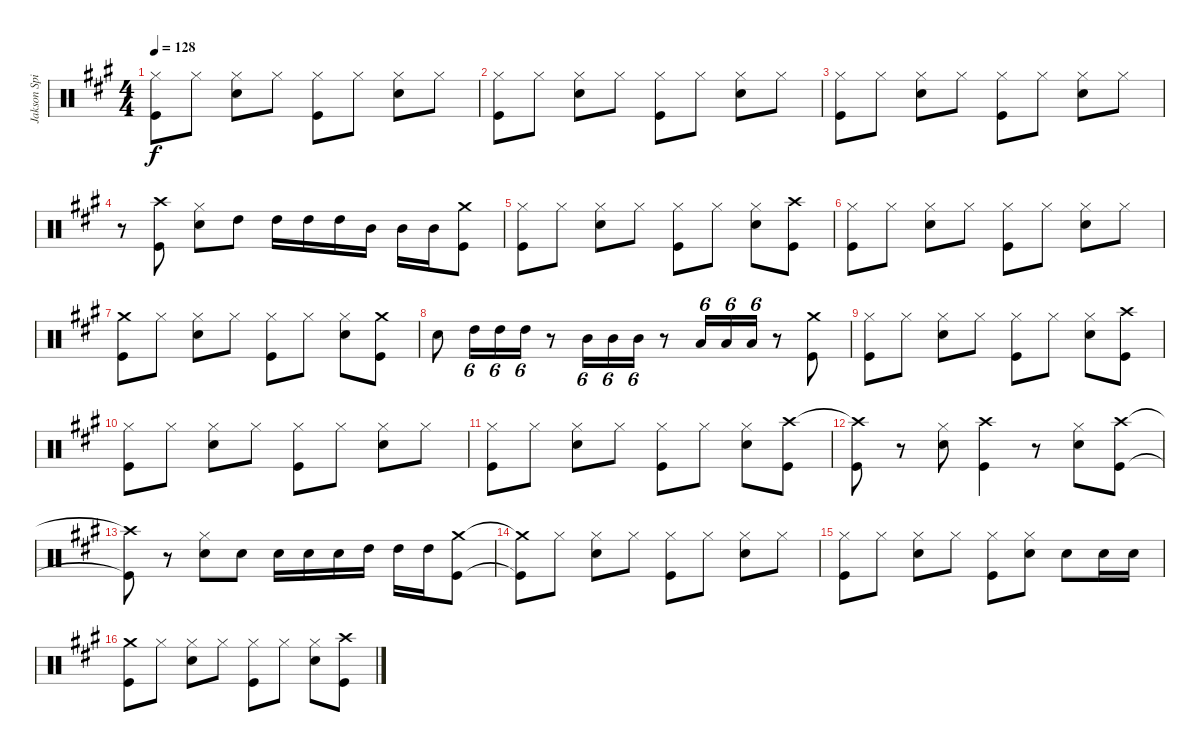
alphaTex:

\track ("Jakson Spires Drums" "Jakson Spi") {instrument percussion}
\staff {score}
\articulation defaults
\ts (4 4)
\tempo 128
\clef neutral
\ks a
("Hi-Hat (closed)" "Kick (hit)").8{dy f} "Hi-Hat (closed)".8 ("Hi-Hat (closed)" "Snare (hit) 2").8 "Hi-Hat (closed)".8 ("Hi-Hat (closed)" "Kick (hit)").8 "Hi-Hat (closed)".8 ("Hi-Hat (closed)" "Snare (hit) 2").8 "Hi-Hat (closed)".8 |
("Hi-Hat (closed)" "Kick (hit)").8 "Hi-Hat (closed)".8 ("Hi-Hat (closed)" "Snare (hit) 2").8 "Hi-Hat (closed)".8 ("Hi-Hat (closed)" "Kick (hit)").8 "Hi-Hat (closed)".8 ("Hi-Hat (closed)" "Snare (hit) 2").8 "Hi-Hat (closed)".8 |
("Hi-Hat (closed)" "Kick (hit)").8 "Hi-Hat (closed)".8 ("Hi-Hat (closed)" "Snare (hit) 2").8 "Hi-Hat (closed)".8 ("Hi-Hat (closed)" "Kick (hit)").8 "Hi-Hat (closed)".8 ("Hi-Hat (closed)" "Snare (hit) 2").8 "Hi-Hat (closed)".8 |
r.8 ("Crash high (hit)" "Kick (hit)").8 ("Hi-Hat (closed)" "Snare (hit) 2").8 "High Tom (hit)".8 "High Tom (hit)".16 "High Tom (hit)".16 "High Tom (hit)".16 "Mid Tom (hit)".16 "Mid Tom (hit)".16 "Mid Tom (hit)".16 ("Crash medium (hit)" "Kick (hit)").8 |
("Hi-Hat (closed)" "Kick (hit)").8 "Hi-Hat (closed)".8 ("Hi-Hat (closed)" "Snare (hit) 2").8 "Hi-Hat (closed)".8 ("Hi-Hat (closed)" "Kick (hit)").8 "Hi-Hat (closed)".8 ("Hi-Hat (closed)" "Snare (hit) 2").8 ("Crash high (hit)" "Kick (hit)").8 |
("Hi-Hat (closed)" "Kick (hit)").8 "Hi-Hat (closed)".8 ("Hi-Hat (closed)" "Snare (hit) 2").8 "Hi-Hat (closed)".8 ("Hi-Hat (closed)" "Kick (hit)").8 "Hi-Hat (closed)".8 ("Hi-Hat (closed)" "Snare (hit) 2").8 "Hi-Hat (closed)".8 |
("Crash medium (hit)" "Kick (hit)").8 "Hi-Hat (closed)".8 ("Hi-Hat (closed)" "Snare (hit) 2").8 "Hi-Hat (closed)".8 ("Hi-Hat (closed)" "Kick (hit)").8 "Hi-Hat (closed)".8 ("Hi-Hat (closed)" "Snare (hit) 2").8 ("Crash medium (hit)" "Kick (hit)").8 |
"Snare (hit) 2".8 "High Tom (hit)".16{tu (6 4)} "High Tom (hit)".16{tu (6 4)} "High Tom (hit)".16{tu (6 4)} r.8 "Mid Tom (hit)".16{tu (6 4)} "Mid Tom (hit)".16{tu (6 4)} "Mid Tom (hit)".16{tu (6 4)} r.8 "Low Tom (hit)".16{tu (6 4)} "Low Tom (hit)".16{tu (6 4)} "Low Tom (hit)".16{tu (6 4)} r.8 ("Crash medium (hit)" "Kick (hit)").8 |
("Hi-Hat (closed)" "Kick (hit)").8 "Hi-Hat (closed)".8 ("Hi-Hat (closed)" "Snare (hit) 2").8 "Hi-Hat (closed)".8 ("Hi-Hat (closed)" "Kick (hit)").8 "Hi-Hat (closed)".8 ("Hi-Hat (closed)" "Snare (hit) 2").8 ("Crash high (hit)" "Kick (hit)").8 |
("Hi-Hat (closed)" "Kick (hit)").8 "Hi-Hat (closed)".8 ("Hi-Hat (closed)" "Snare (hit) 2").8 "Hi-Hat (closed)".8 ("Hi-Hat (closed)" "Kick (hit)").8 "Hi-Hat (closed)".8 ("Hi-Hat (closed)" "Snare (hit) 2").8 "Hi-Hat (closed)".8 |
("Hi-Hat (closed)" "Kick (hit)").8 "Hi-Hat (closed)".8 ("Hi-Hat (closed)" "Snare (hit) 2").8 "Hi-Hat (closed)".8 ("Hi-Hat (closed)" "Kick (hit)").8 "Hi-Hat (closed)".8 ("Hi-Hat (closed)" "Snare (hit) 2").8 ("Crash high (hit)" "Kick (hit)").8 |
("Crash high (hit)"{t} "Kick (hit)").8 r.8 ("Hi-Hat (closed)" "Snare (hit) 2").8 ("Crash high (hit)" "Kick (hit)").4 r.8 ("Hi-Hat (closed)" "Snare (hit) 2").8 ("Crash high (hit)" "Kick (hit)").8 |
("Crash high (hit)"{t} "Kick (hit)"{t}).8 r.8 ("Hi-Hat (closed)" "Snare (hit) 2").8 "Snare (hit) 2".8 "Snare (hit) 2".16 "Snare (hit) 2".16 "Snare (hit) 2".16 "High Tom (hit)".16 "High Tom (hit)".16 "High Tom (hit)".16 ("Crash medium (hit)" "Kick (hit)").8 |
("Crash medium (hit)"{t} "Kick (hit)"{t}).8 "Hi-Hat (closed)".8 ("Hi-Hat (closed)" "Snare (hit) 2").8 "Hi-Hat (closed)".8 ("Hi-Hat (closed)" "Kick (hit)").8 "Hi-Hat (closed)".8 ("Hi-Hat (closed)" "Snare (hit) 2").8 "Hi-Hat (closed)".8 |
("Hi-Hat (closed)" "Kick (hit)").8 "Hi-Hat (closed)".8 ("Hi-Hat (closed)" "Snare (hit) 2").8 "Hi-Hat (closed)".8 ("Hi-Hat (closed)" "Kick (hit)").8 ("Hi-Hat (closed)" "Snare (hit) 2").8 "Snare (hit) 2".8 "Snare (hit) 2".16 "Snare (hit) 2".16 |
("Crash medium (hit)" "Kick (hit)").8 "Hi-Hat (closed)".8 ("Hi-Hat (closed)" "Snare (hit) 2").8 "Hi-Hat (closed)".8 ("Hi-Hat (closed)" "Kick (hit)").8 "Hi-Hat (closed)".8 ("Hi-Hat (closed)" "Snare (hit) 2").8 ("Crash high (hit)" "Kick (hit)").8
